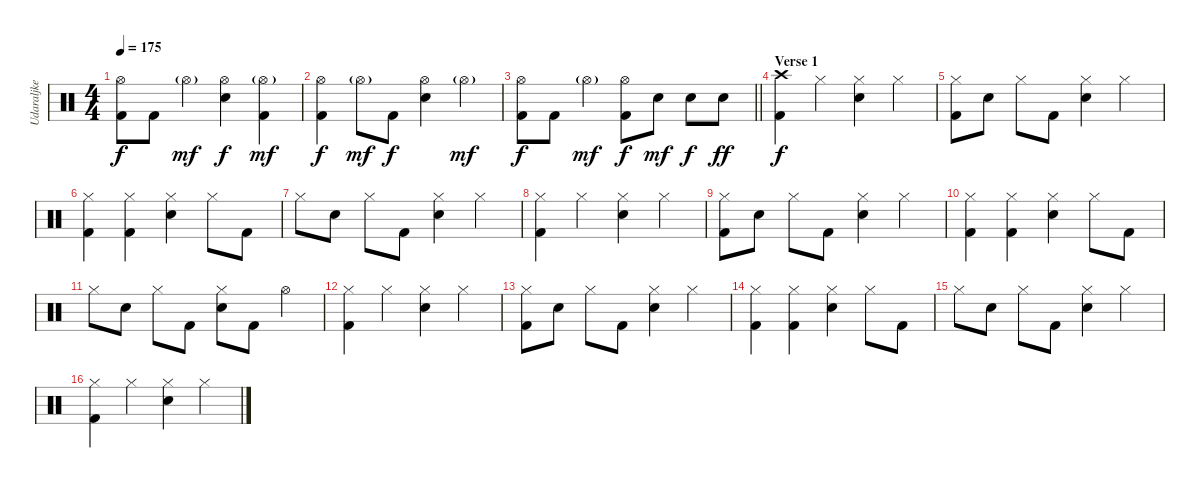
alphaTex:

\track ("Udaraljke" "Udaraljke") {instrument percussion}
\staff {score}
\articulation defaults
\ts (4 4)
\tempo 175
\clef neutral
\ks c
("Hi-Hat (open)" "Kick (hit) 2").8{dy f} "Kick (hit) 2".8 "Hi-Hat (open)"{g}.4{dy mf} ("Hi-Hat (open)" "Electric Snare (hit)").4{dy f} ("Hi-Hat (open)"{g} "Kick (hit) 2").4{dy mf} |
("Hi-Hat (open)" "Kick (hit) 2").4{dy f} "Hi-Hat (open)"{g}.8{dy mf} "Kick (hit) 2".8{dy f} ("Hi-Hat (open)" "Electric Snare (hit)").4 "Hi-Hat (open)"{g}.4{dy mf} |
\barLineRight lightlight
("Hi-Hat (open)" "Kick (hit) 2").8{dy f} "Kick (hit) 2".8 "Hi-Hat (open)"{g}.4{dy mf} ("Hi-Hat (open)" "Kick (hit) 2").8{dy f} "Electric Snare (hit)".8{dy mf} "Electric Snare (hit)".8{dy f} "Electric Snare (hit)".8{dy ff} |
\section ("" "Verse 1")
("Crash high (hit)" "Kick (hit) 2").4{dy f} "Hi-Hat (closed)".4 ("Hi-Hat (closed)" "Electric Snare (hit)").4 "Hi-Hat (closed)".4 |
("Hi-Hat (closed)" "Kick (hit) 2").8 "Electric Snare (hit)".8 "Hi-Hat (closed)".8 "Kick (hit) 2".8 ("Hi-Hat (closed)" "Electric Snare (hit)").4 "Hi-Hat (closed)".4 |
("Hi-Hat (closed)" "Kick (hit) 2").4 ("Hi-Hat (closed)" "Kick (hit) 2").4 ("Hi-Hat (closed)" "Electric Snare (hit)").4 "Hi-Hat (closed)".8 "Kick (hit) 2".8 |
"Hi-Hat (closed)".8 "Electric Snare (hit)".8 "Hi-Hat (closed)".8 "Kick (hit) 2".8 ("Hi-Hat (closed)" "Electric Snare (hit)").4 "Hi-Hat (closed)".4 |
("Hi-Hat (closed)" "Kick (hit) 2").4 "Hi-Hat (closed)".4 ("Hi-Hat (closed)" "Electric Snare (hit)").4 "Hi-Hat (closed)".4 |
("Hi-Hat (closed)" "Kick (hit) 2").8 "Electric Snare (hit)".8 "Hi-Hat (closed)".8 "Kick (hit) 2".8 ("Hi-Hat (closed)" "Electric Snare (hit)").4 "Hi-Hat (closed)".4 |
("Hi-Hat (closed)" "Kick (hit) 2").4 ("Hi-Hat (closed)" "Kick (hit) 2").4 ("Hi-Hat (closed)" "Electric Snare (hit)").4 "Hi-Hat (closed)".8 "Kick (hit) 2".8 |
"Hi-Hat (closed)".8 "Electric Snare (hit)".8 "Hi-Hat (closed)".8 "Kick (hit) 2".8 ("Hi-Hat (closed)" "Electric Snare (hit)").8 "Kick (hit) 2".8 "Hi-Hat (open)".4 |
("Hi-Hat (closed)" "Kick (hit) 2").4 "Hi-Hat (closed)".4 ("Hi-Hat (closed)" "Electric Snare (hit)").4 "Hi-Hat (closed)".4 |
("Hi-Hat (closed)" "Kick (hit) 2").8 "Electric Snare (hit)".8 "Hi-Hat (closed)".8 "Kick (hit) 2".8 ("Hi-Hat (closed)" "Electric Snare (hit)").4 "Hi-Hat (closed)".4 |
("Hi-Hat (closed)" "Kick (hit) 2").4 ("Hi-Hat (closed)" "Kick (hit) 2").4 ("Hi-Hat (closed)" "Electric Snare (hit)").4 "Hi-Hat (closed)".8 "Kick (hit) 2".8 |
"Hi-Hat (closed)".8 "Electric Snare (hit)".8 "Hi-Hat (closed)".8 "Kick (hit) 2".8 ("Hi-Hat (closed)" "Electric Snare (hit)").4 "Hi-Hat (closed)".4 |
("Hi-Hat (closed)" "Kick (hit) 2").4 "Hi-Hat (closed)".4 ("Hi-Hat (closed)" "Electric Snare (hit)").4 "Hi-Hat (closed)".4
